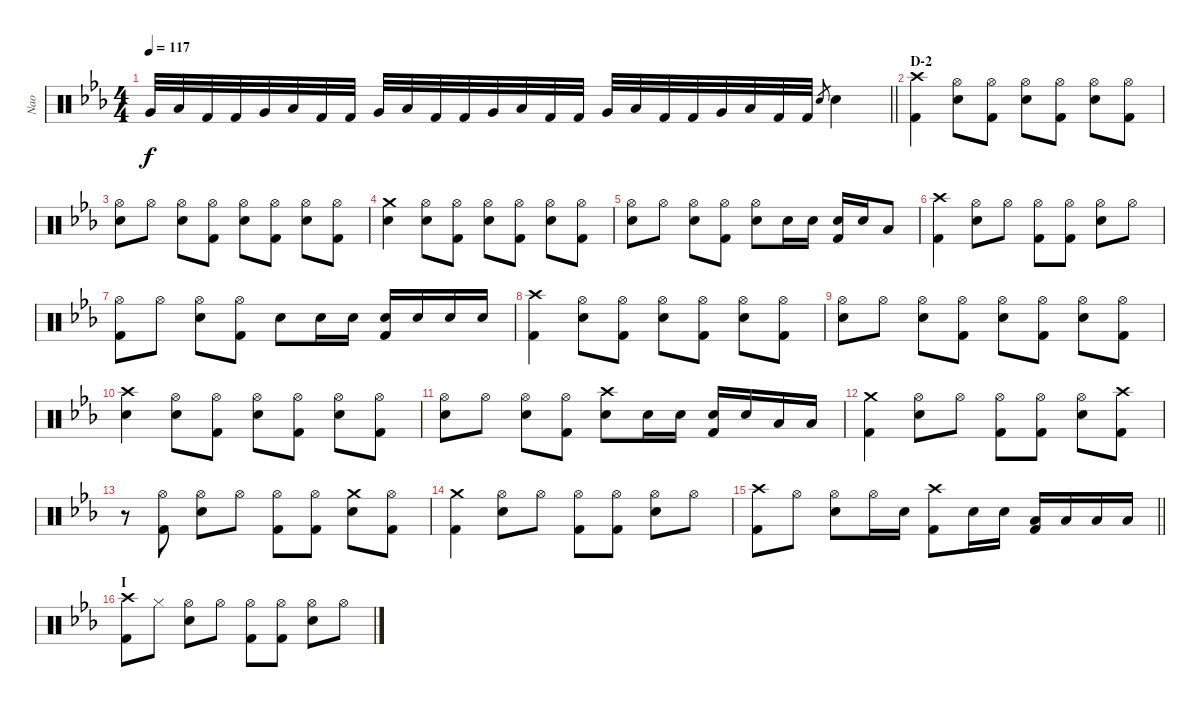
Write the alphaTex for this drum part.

\track ("Nao" "Nao") {instrument percussion}
\staff {score}
\articulation defaults
\ts (4 4)
\tempo 117
\clef neutral
\barLineRight lightlight
\ks eb "Very Low Tom (hit)".32{dy f} "Low Tom (hit)".32 "Kick (hit) 2".32 "Kick (hit) 2".32 "Very Low Tom (hit)".32 "Low Tom (hit)".32 "Kick (hit) 2".32 "Kick (hit) 2".32 "Very Low Tom (hit)".32 "Low Tom (hit)".32 "Kick (hit) 2".32 "Kick (hit) 2".32 "Very Low Tom (hit)".32 "Low Tom (hit)".32 "Kick (hit) 2".32 "Kick (hit) 2".32 "Very Low Tom (hit)".32 "Low Tom (hit)".32 "Kick (hit) 2".32 "Kick (hit) 2".32 "Very Low Tom (hit)".32 "Low Tom (hit)".32 "Kick (hit) 2".32 "Kick (hit) 2".32 "Snare (hit) 2".8{gr} "Snare (hit) 2".4
|
\section ("" "D-2")
("Crash high (hit)" "Kick (hit) 2").4 ("Hi-Hat (open)" "Snare (hit) 2").8 ("Hi-Hat (open)" "Kick (hit) 2").8 ("Hi-Hat (open)" "Snare (hit) 2").8 ("Hi-Hat (open)" "Kick (hit) 2").8 ("Hi-Hat (open)" "Snare (hit) 2").8 ("Hi-Hat (open)" "Kick (hit) 2").8 |
("Hi-Hat (open)" "Snare (hit) 2").8 "Hi-Hat (open)".8 ("Hi-Hat (open)" "Snare (hit) 2").8 ("Hi-Hat (open)" "Kick (hit) 2").8 ("Hi-Hat (open)" "Snare (hit) 2").8 ("Hi-Hat (open)" "Kick (hit) 2").8 ("Hi-Hat (open)" "Snare (hit) 2").8 ("Hi-Hat (open)" "Kick (hit) 2").8 |
("Crash medium (hit)" "Snare (hit) 2").4 ("Hi-Hat (open)" "Snare (hit) 2").8 ("Hi-Hat (open)" "Kick (hit) 2").8 ("Hi-Hat (open)" "Snare (hit) 2").8 ("Hi-Hat (open)" "Kick (hit) 2").8 ("Hi-Hat (open)" "Snare (hit) 2").8 ("Hi-Hat (open)" "Kick (hit) 2").8 |
("Hi-Hat (open)" "Snare (hit) 2").8 "Hi-Hat (open)".8 ("Hi-Hat (open)" "Snare (hit) 2").8 ("Hi-Hat (open)" "Kick (hit) 2").8 ("Hi-Hat (open)" "Snare (hit) 2").8 "Snare (hit) 2".16 "Snare (hit) 2".16 ("Snare (hit) 2" "Kick (hit) 2").16 "Snare (hit) 2".16 "Low Tom (hit)".8 |
("Crash high (hit)" "Kick (hit) 2").4 ("Hi-Hat (open)" "Snare (hit) 2").8 "Hi-Hat (open)".8 ("Hi-Hat (open)" "Kick (hit) 2").8 ("Hi-Hat (open)" "Kick (hit) 2").8 ("Hi-Hat (open)" "Snare (hit) 2").8 "Hi-Hat (open)".8 |
("Hi-Hat (open)" "Kick (hit) 2").8 "Hi-Hat (open)".8 ("Hi-Hat (open)" "Snare (hit) 2").8 ("Hi-Hat (open)" "Kick (hit) 2").8 "Snare (hit) 2".8 "Snare (hit) 2".16 "Snare (hit) 2".16 ("Snare (hit) 2" "Kick (hit) 2").16 "Snare (hit) 2".16 "Snare (hit) 2".16 "Snare (hit) 2".16 |
("Crash high (hit)" "Kick (hit) 2").4 ("Hi-Hat (open)" "Snare (hit) 2").8 ("Hi-Hat (open)" "Kick (hit) 2").8 ("Hi-Hat (open)" "Snare (hit) 2").8 ("Hi-Hat (open)" "Kick (hit) 2").8 ("Hi-Hat (open)" "Snare (hit) 2").8 ("Hi-Hat (open)" "Kick (hit) 2").8 |
("Hi-Hat (open)" "Snare (hit) 2").8 "Hi-Hat (open)".8 ("Hi-Hat (open)" "Snare (hit) 2").8 ("Hi-Hat (open)" "Kick (hit) 2").8 ("Hi-Hat (open)" "Snare (hit) 2").8 ("Hi-Hat (open)" "Kick (hit) 2").8 ("Hi-Hat (open)" "Snare (hit) 2").8 ("Hi-Hat (open)" "Kick (hit) 2").8 |
("Crash high (hit)" "Snare (hit) 2").4 ("Hi-Hat (open)" "Snare (hit) 2").8 ("Hi-Hat (open)" "Kick (hit) 2").8 ("Hi-Hat (open)" "Snare (hit) 2").8 ("Hi-Hat (open)" "Kick (hit) 2").8 ("Hi-Hat (open)" "Snare (hit) 2").8 ("Hi-Hat (open)" "Kick (hit) 2").8 |
("Hi-Hat (open)" "Snare (hit) 2").8 "Hi-Hat (open)".8 ("Hi-Hat (open)" "Snare (hit) 2").8 ("Hi-Hat (open)" "Kick (hit) 2").8 ("Crash high (hit)" "Snare (hit) 2").8 "Snare (hit) 2".16 "Snare (hit) 2".16 ("Snare (hit) 2" "Kick (hit) 2").16 "Snare (hit) 2".16 "Low Tom (hit)".16 "Low Tom (hit)".16 |
("Crash medium (hit)" "Kick (hit) 2").4 ("Hi-Hat (open)" "Snare (hit) 2").8 "Hi-Hat (open)".8 ("Hi-Hat (open)" "Kick (hit) 2").8 ("Hi-Hat (open)" "Kick (hit) 2").8 ("Hi-Hat (open)" "Snare (hit) 2").8 ("Crash high (hit)" "Kick (hit) 2").8 |
r.8 ("Hi-Hat (open)" "Kick (hit) 2").8 ("Hi-Hat (open)" "Snare (hit) 2").8 "Hi-Hat (open)".8 ("Hi-Hat (open)" "Kick (hit) 2").8 ("Hi-Hat (open)" "Kick (hit) 2").8 ("Crash medium (hit)" "Snare (hit) 2").8 ("Hi-Hat (open)" "Kick (hit) 2").8 |
("Crash medium (hit)" "Kick (hit) 2").4 ("Hi-Hat (open)" "Snare (hit) 2").8 "Hi-Hat (open)".8 ("Hi-Hat (open)" "Kick (hit) 2").8 ("Hi-Hat (open)" "Kick (hit) 2").8 ("Hi-Hat (open)" "Snare (hit) 2").8 "Hi-Hat (open)".8 |
\barLineRight lightlight
("Crash high (hit)" "Kick (hit) 2").8 "Hi-Hat (open)".8 ("Hi-Hat (open)" "Snare (hit) 2").8 "Hi-Hat (open)".16 "Snare (hit) 2".16 ("Crash high (hit)" "Kick (hit) 2").8 "Snare (hit) 2".16 "Snare (hit) 2".16 ("Low Tom (hit)" "Kick (hit) 2").16 "Low Tom (hit)".16 "Low Tom (hit)".16 "Low Tom (hit)".16 |
\section ("" "I")
("Crash high (hit)" "Kick (hit) 2").8 "Hi-Hat (closed)".8 ("Hi-Hat (open)" "Snare (hit) 2").8 "Hi-Hat (open)".8 ("Hi-Hat (open)" "Kick (hit) 2").8 ("Hi-Hat (open)" "Kick (hit) 2").8 ("Hi-Hat (open)" "Snare (hit) 2").8 "Hi-Hat (open)".8
